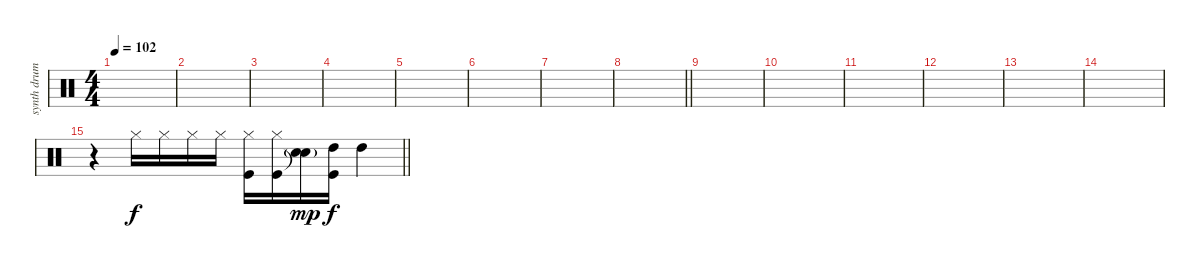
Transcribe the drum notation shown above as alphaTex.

\track ("synth drums" "synth drum") {instrument percussion}
\staff {score}
\articulation defaults
\ts (4 4)
\tempo 102
\clef neutral
\ks c
|
|
|
|
|
|
|
\barLineRight lightlight
|
|
|
|
|
|
|
\barLineRight lightlight
r.4 "Hi-Hat (closed)".16 "Hi-Hat (closed)".16 "Hi-Hat (closed)".16 "Hi-Hat (closed)".16 ("Hi-Hat (closed)" "Kick (hit)").16 ("Hi-Hat (closed)" "Kick (hit)").16 ("Electric Snare (hit)"{g} "Snare (hit)"{t}).16{dy mp} ("High Tom (hit)" "Kick (hit)").16{dy f} "High Tom (hit)".4
